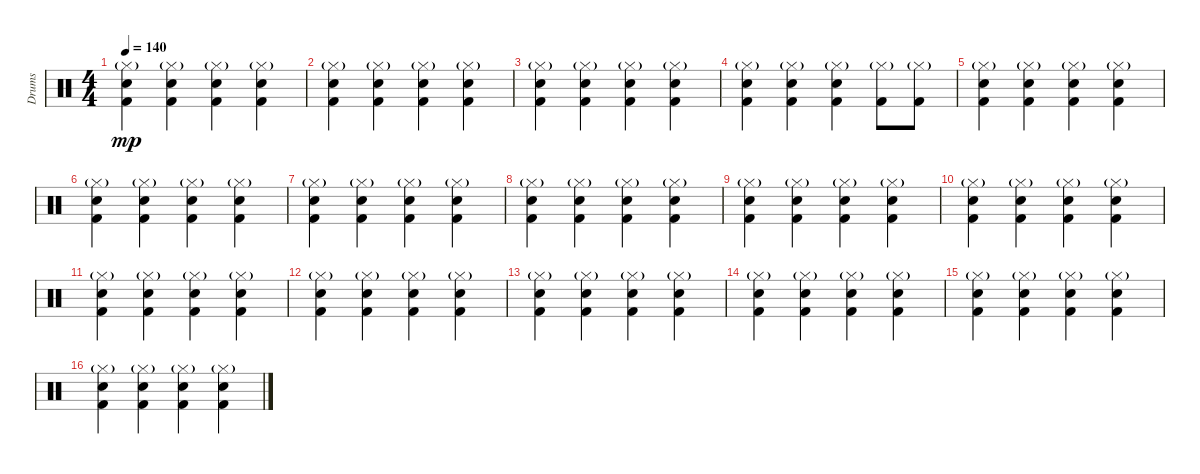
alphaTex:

\track ("Drums" "Drums") {instrument percussion}
\staff {score}
\articulation defaults
\ts (4 4)
\tempo 140
\clef neutral
\ks c
("Hi-Hat (closed)"{g} "Electric Snare (hit)" "Kick (hit) 2").4{dy mp volume 11} ("Hi-Hat (closed)"{g} "Electric Snare (hit)" "Kick (hit) 2").4 ("Hi-Hat (closed)"{g} "Electric Snare (hit)" "Kick (hit) 2").4 ("Hi-Hat (closed)"{g} "Electric Snare (hit)" "Kick (hit) 2").4 |
("Hi-Hat (closed)"{g} "Electric Snare (hit)" "Kick (hit) 2").4 ("Hi-Hat (closed)"{g} "Electric Snare (hit)" "Kick (hit) 2").4 ("Hi-Hat (closed)"{g} "Electric Snare (hit)" "Kick (hit) 2").4 ("Hi-Hat (closed)"{g} "Electric Snare (hit)" "Kick (hit) 2").4 |
("Hi-Hat (closed)"{g} "Electric Snare (hit)" "Kick (hit) 2").4 ("Hi-Hat (closed)"{g} "Electric Snare (hit)" "Kick (hit) 2").4 ("Hi-Hat (closed)"{g} "Electric Snare (hit)" "Kick (hit) 2").4 ("Hi-Hat (closed)"{g} "Electric Snare (hit)" "Kick (hit) 2").4 |
("Hi-Hat (closed)"{g} "Electric Snare (hit)" "Kick (hit) 2").4 ("Hi-Hat (closed)"{g} "Electric Snare (hit)" "Kick (hit) 2").4 ("Hi-Hat (closed)"{g} "Electric Snare (hit)" "Kick (hit) 2").4 ("Hi-Hat (closed)"{g} "Kick (hit) 2").8 ("Hi-Hat (closed)"{g} "Kick (hit) 2").8 |
("Hi-Hat (closed)"{g} "Electric Snare (hit)" "Kick (hit) 2").4 ("Hi-Hat (closed)"{g} "Electric Snare (hit)" "Kick (hit) 2").4 ("Hi-Hat (closed)"{g} "Electric Snare (hit)" "Kick (hit) 2").4 ("Hi-Hat (closed)"{g} "Electric Snare (hit)" "Kick (hit) 2").4 |
("Hi-Hat (closed)"{g} "Electric Snare (hit)" "Kick (hit) 2").4 ("Hi-Hat (closed)"{g} "Electric Snare (hit)" "Kick (hit) 2").4 ("Hi-Hat (closed)"{g} "Electric Snare (hit)" "Kick (hit) 2").4 ("Hi-Hat (closed)"{g} "Electric Snare (hit)" "Kick (hit) 2").4 |
("Hi-Hat (closed)"{g} "Electric Snare (hit)" "Kick (hit) 2").4 ("Hi-Hat (closed)"{g} "Electric Snare (hit)" "Kick (hit) 2").4 ("Hi-Hat (closed)"{g} "Electric Snare (hit)" "Kick (hit) 2").4 ("Hi-Hat (closed)"{g} "Electric Snare (hit)" "Kick (hit) 2").4 |
("Hi-Hat (closed)"{g} "Electric Snare (hit)" "Kick (hit) 2").4 ("Hi-Hat (closed)"{g} "Electric Snare (hit)" "Kick (hit) 2").4 ("Hi-Hat (closed)"{g} "Electric Snare (hit)" "Kick (hit) 2").4 ("Hi-Hat (closed)"{g} "Electric Snare (hit)" "Kick (hit) 2").4 |
("Hi-Hat (closed)"{g} "Electric Snare (hit)" "Kick (hit) 2").4 ("Hi-Hat (closed)"{g} "Electric Snare (hit)" "Kick (hit) 2").4 ("Hi-Hat (closed)"{g} "Electric Snare (hit)" "Kick (hit) 2").4 ("Hi-Hat (closed)"{g} "Electric Snare (hit)" "Kick (hit) 2").4 |
("Hi-Hat (closed)"{g} "Electric Snare (hit)" "Kick (hit) 2").4 ("Hi-Hat (closed)"{g} "Electric Snare (hit)" "Kick (hit) 2").4 ("Hi-Hat (closed)"{g} "Electric Snare (hit)" "Kick (hit) 2").4 ("Hi-Hat (closed)"{g} "Electric Snare (hit)" "Kick (hit) 2").4 |
("Hi-Hat (closed)"{g} "Electric Snare (hit)" "Kick (hit) 2").4 ("Hi-Hat (closed)"{g} "Electric Snare (hit)" "Kick (hit) 2").4 ("Hi-Hat (closed)"{g} "Electric Snare (hit)" "Kick (hit) 2").4 ("Hi-Hat (closed)"{g} "Electric Snare (hit)" "Kick (hit) 2").4 |
("Hi-Hat (closed)"{g} "Electric Snare (hit)" "Kick (hit) 2").4 ("Hi-Hat (closed)"{g} "Electric Snare (hit)" "Kick (hit) 2").4 ("Hi-Hat (closed)"{g} "Electric Snare (hit)" "Kick (hit) 2").4 ("Hi-Hat (closed)"{g} "Electric Snare (hit)" "Kick (hit) 2").4 |
("Hi-Hat (closed)"{g} "Electric Snare (hit)" "Kick (hit) 2").4 ("Hi-Hat (closed)"{g} "Electric Snare (hit)" "Kick (hit) 2").4 ("Hi-Hat (closed)"{g} "Electric Snare (hit)" "Kick (hit) 2").4 ("Hi-Hat (closed)"{g} "Electric Snare (hit)" "Kick (hit) 2").4 |
("Hi-Hat (closed)"{g} "Electric Snare (hit)" "Kick (hit) 2").4 ("Hi-Hat (closed)"{g} "Electric Snare (hit)" "Kick (hit) 2").4 ("Hi-Hat (closed)"{g} "Electric Snare (hit)" "Kick (hit) 2").4 ("Hi-Hat (closed)"{g} "Electric Snare (hit)" "Kick (hit) 2").4 |
("Hi-Hat (closed)"{g} "Electric Snare (hit)" "Kick (hit) 2").4 ("Hi-Hat (closed)"{g} "Electric Snare (hit)" "Kick (hit) 2").4 ("Hi-Hat (closed)"{g} "Electric Snare (hit)" "Kick (hit) 2").4 ("Hi-Hat (closed)"{g} "Electric Snare (hit)" "Kick (hit) 2").4 |
("Hi-Hat (closed)"{g} "Electric Snare (hit)" "Kick (hit) 2").4 ("Hi-Hat (closed)"{g} "Electric Snare (hit)" "Kick (hit) 2").4 ("Hi-Hat (closed)"{g} "Electric Snare (hit)" "Kick (hit) 2").4 ("Hi-Hat (closed)"{g} "Electric Snare (hit)" "Kick (hit) 2").4
